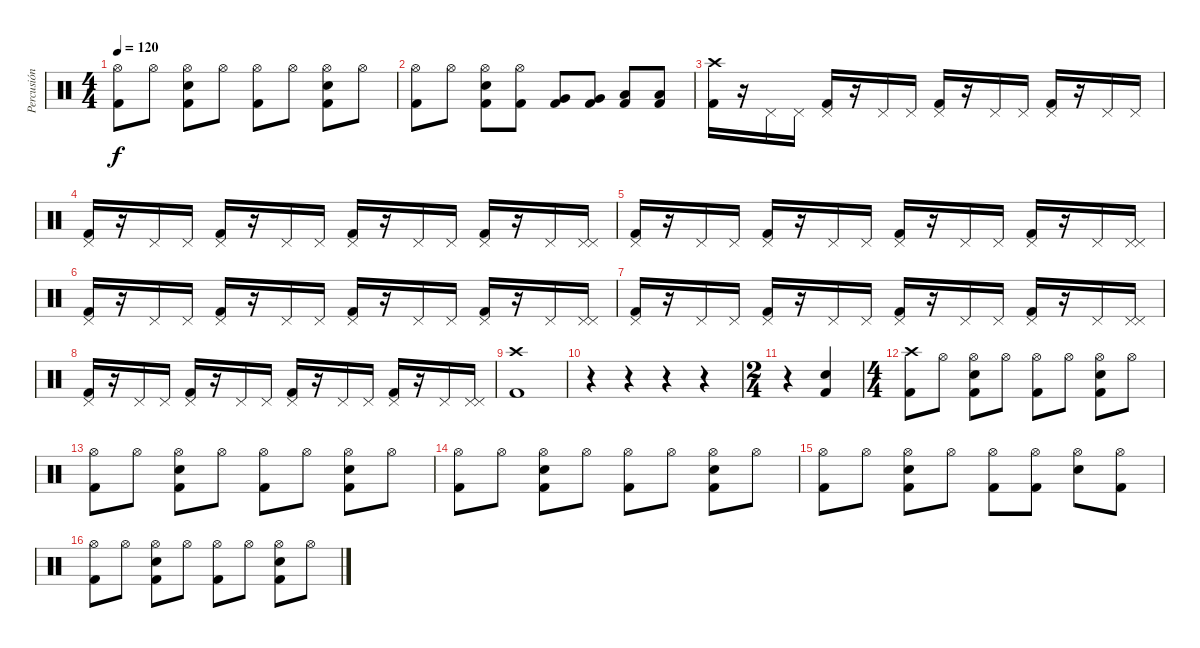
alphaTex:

\track ("Percusión" "Percusión") {instrument percussion}
\staff {score}
\articulation defaults
\ts (4 4)
\tempo 120
\clef neutral
\ks c
("Hi-Hat (open)" "Kick (hit) 2").8{dy f} "Hi-Hat (open)".8 ("Kick (hit) 2" "Electric Snare (hit)" "Hi-Hat (open)").8 "Hi-Hat (open)".8 ("Kick (hit) 2" "Hi-Hat (open)").8 "Hi-Hat (open)".8 ("Kick (hit) 2" "Electric Snare (hit)" "Hi-Hat (open)").8 "Hi-Hat (open)".8 |
("Hi-Hat (open)" "Kick (hit) 2").8 "Hi-Hat (open)".8 ("Kick (hit) 2" "Electric Snare (hit)" "Hi-Hat (open)").8 ("Kick (hit) 2" "Hi-Hat (open)").8 ("Kick (hit) 2" "Very Low Tom (hit)").8 ("Kick (hit) 2" "Very Low Tom (hit)").8 ("Kick (hit) 2" "Low Floor Tom (hit)").8 ("Kick (hit) 2" "Low Floor Tom (hit)").8 |
("Crash high (hit)" "Kick (hit) 2").16 r.16 "Pedal Hi-Hat (hit)".16 "Pedal Hi-Hat (hit)".16 ("Pedal Hi-Hat (hit)" "Kick (hit) 2").16 r.16 "Pedal Hi-Hat (hit)".16 "Pedal Hi-Hat (hit)".16 ("Pedal Hi-Hat (hit)" "Kick (hit) 2").16 r.16 "Pedal Hi-Hat (hit)".16 "Pedal Hi-Hat (hit)".16 ("Pedal Hi-Hat (hit)" "Kick (hit) 2").16 r.16 "Pedal Hi-Hat (hit)".16 "Pedal Hi-Hat (hit)".16 |
("Pedal Hi-Hat (hit)" "Kick (hit) 2").16 r.16 "Pedal Hi-Hat (hit)".16 "Pedal Hi-Hat (hit)".16 ("Pedal Hi-Hat (hit)" "Kick (hit) 2").16 r.16 "Pedal Hi-Hat (hit)".16 "Pedal Hi-Hat (hit)".16 ("Pedal Hi-Hat (hit)" "Kick (hit) 2").16 r.16 "Pedal Hi-Hat (hit)".16 "Pedal Hi-Hat (hit)".16 ("Pedal Hi-Hat (hit)" "Kick (hit) 2").16 r.16 "Pedal Hi-Hat (hit)".16 ("Pedal Hi-Hat (hit)" "Pedal Hi-Hat (hit)").16 |
("Pedal Hi-Hat (hit)" "Kick (hit) 2").16 r.16 "Pedal Hi-Hat (hit)".16 "Pedal Hi-Hat (hit)".16 ("Pedal Hi-Hat (hit)" "Kick (hit) 2").16 r.16 "Pedal Hi-Hat (hit)".16 "Pedal Hi-Hat (hit)".16 ("Pedal Hi-Hat (hit)" "Kick (hit) 2").16 r.16 "Pedal Hi-Hat (hit)".16 "Pedal Hi-Hat (hit)".16 ("Pedal Hi-Hat (hit)" "Kick (hit) 2").16 r.16 "Pedal Hi-Hat (hit)".16 ("Pedal Hi-Hat (hit)" "Pedal Hi-Hat (hit)").16 |
("Pedal Hi-Hat (hit)" "Kick (hit) 2").16 r.16 "Pedal Hi-Hat (hit)".16 "Pedal Hi-Hat (hit)".16 ("Pedal Hi-Hat (hit)" "Kick (hit) 2").16 r.16 "Pedal Hi-Hat (hit)".16 "Pedal Hi-Hat (hit)".16 ("Pedal Hi-Hat (hit)" "Kick (hit) 2").16 r.16 "Pedal Hi-Hat (hit)".16 "Pedal Hi-Hat (hit)".16 ("Pedal Hi-Hat (hit)" "Kick (hit) 2").16 r.16 "Pedal Hi-Hat (hit)".16 ("Pedal Hi-Hat (hit)" "Pedal Hi-Hat (hit)").16 |
("Pedal Hi-Hat (hit)" "Kick (hit) 2").16 r.16 "Pedal Hi-Hat (hit)".16 "Pedal Hi-Hat (hit)".16 ("Pedal Hi-Hat (hit)" "Kick (hit) 2").16 r.16 "Pedal Hi-Hat (hit)".16 "Pedal Hi-Hat (hit)".16 ("Pedal Hi-Hat (hit)" "Kick (hit) 2").16 r.16 "Pedal Hi-Hat (hit)".16 "Pedal Hi-Hat (hit)".16 ("Pedal Hi-Hat (hit)" "Kick (hit) 2").16 r.16 "Pedal Hi-Hat (hit)".16 ("Pedal Hi-Hat (hit)" "Pedal Hi-Hat (hit)").16 |
("Pedal Hi-Hat (hit)" "Kick (hit) 2").16 r.16 "Pedal Hi-Hat (hit)".16 "Pedal Hi-Hat (hit)".16 ("Pedal Hi-Hat (hit)" "Kick (hit) 2").16 r.16 "Pedal Hi-Hat (hit)".16 "Pedal Hi-Hat (hit)".16 ("Pedal Hi-Hat (hit)" "Kick (hit) 2").16 r.16 "Pedal Hi-Hat (hit)".16 "Pedal Hi-Hat (hit)".16 ("Pedal Hi-Hat (hit)" "Kick (hit) 2").16 r.16 "Pedal Hi-Hat (hit)".16 ("Pedal Hi-Hat (hit)" "Pedal Hi-Hat (hit)").16 |
("Crash high (hit)" "Kick (hit) 2").1 |
r.4 r.4 r.4 r.4 |
\ts (2 4)
r.4 ("Electric Snare (hit)" "Kick (hit) 2").4 |
\ts (4 4)
("Crash high (hit)" "Kick (hit) 2").8 "Hi-Hat (open)".8 ("Kick (hit) 2" "Electric Snare (hit)" "Hi-Hat (open)").8 "Hi-Hat (open)".8 ("Kick (hit) 2" "Hi-Hat (open)").8 "Hi-Hat (open)".8 ("Kick (hit) 2" "Electric Snare (hit)" "Hi-Hat (open)").8 "Hi-Hat (open)".8 |
("Hi-Hat (open)" "Kick (hit) 2").8 "Hi-Hat (open)".8 ("Kick (hit) 2" "Electric Snare (hit)" "Hi-Hat (open)").8 "Hi-Hat (open)".8 ("Kick (hit) 2" "Hi-Hat (open)").8 "Hi-Hat (open)".8 ("Kick (hit) 2" "Electric Snare (hit)" "Hi-Hat (open)").8 "Hi-Hat (open)".8 |
("Hi-Hat (open)" "Kick (hit) 2").8 "Hi-Hat (open)".8 ("Kick (hit) 2" "Electric Snare (hit)" "Hi-Hat (open)").8 "Hi-Hat (open)".8 ("Kick (hit) 2" "Hi-Hat (open)").8 "Hi-Hat (open)".8 ("Kick (hit) 2" "Electric Snare (hit)" "Hi-Hat (open)").8 "Hi-Hat (open)".8 |
("Hi-Hat (open)" "Kick (hit) 2").8 "Hi-Hat (open)".8 ("Kick (hit) 2" "Electric Snare (hit)" "Hi-Hat (open)").8 "Hi-Hat (open)".8 ("Kick (hit) 2" "Hi-Hat (open)").8 ("Kick (hit) 2" "Hi-Hat (open)").8 ("Electric Snare (hit)" "Hi-Hat (open)").8 ("Kick (hit) 2" "Hi-Hat (open)").8 |
("Hi-Hat (open)" "Kick (hit) 2").8 "Hi-Hat (open)".8 ("Kick (hit) 2" "Electric Snare (hit)" "Hi-Hat (open)").8 "Hi-Hat (open)".8 ("Kick (hit) 2" "Hi-Hat (open)").8 "Hi-Hat (open)".8 ("Kick (hit) 2" "Electric Snare (hit)" "Hi-Hat (open)").8 "Hi-Hat (open)".8
